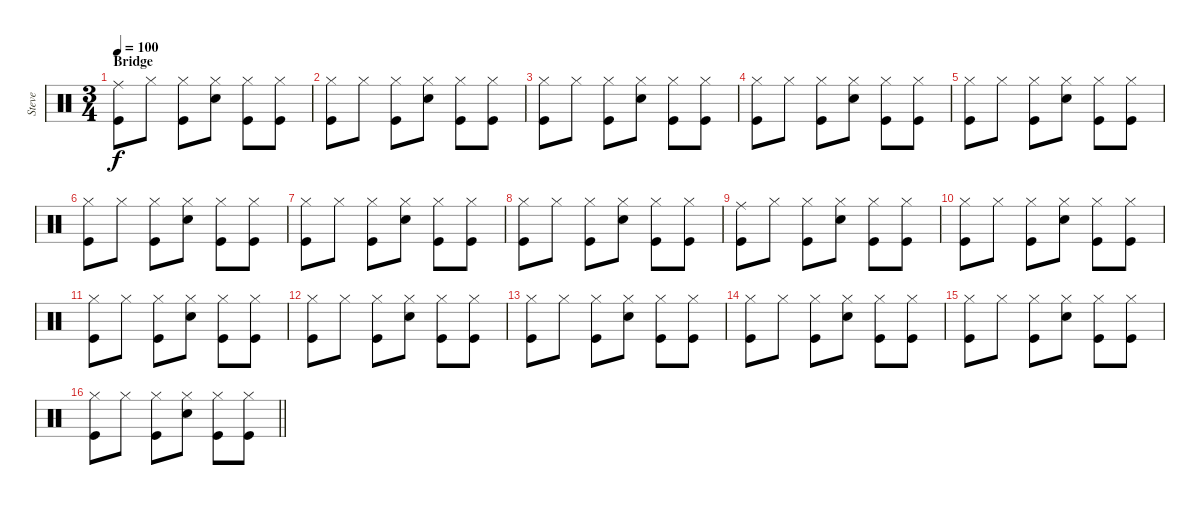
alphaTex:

\track ("Steve" "Steve") {instrument percussion}
\staff {score}
\articulation defaults
\ts (3 4)
\section ("" "Bridge")
\tempo 100
\clef neutral
\ks c
("Kick (hit)" "Ride (middle)").8{dy f} "Hi-Hat (closed)".8 ("Kick (hit)" "Hi-Hat (closed)").8 ("Snare (hit) 2" "Hi-Hat (closed)").8 ("Kick (hit)" "Hi-Hat (closed)").8 ("Kick (hit)" "Hi-Hat (closed)").8 |
("Kick (hit)" "Hi-Hat (closed)").8 "Hi-Hat (closed)".8 ("Kick (hit)" "Hi-Hat (closed)").8 ("Snare (hit) 2" "Hi-Hat (closed)").8 ("Kick (hit)" "Hi-Hat (closed)").8 ("Kick (hit)" "Hi-Hat (closed)").8 |
("Kick (hit)" "Hi-Hat (closed)").8 "Hi-Hat (closed)".8 ("Kick (hit)" "Hi-Hat (closed)").8 ("Snare (hit) 2" "Hi-Hat (closed)").8 ("Kick (hit)" "Hi-Hat (closed)").8 ("Kick (hit)" "Hi-Hat (closed)").8 |
("Kick (hit)" "Hi-Hat (closed)").8 "Hi-Hat (closed)".8 ("Kick (hit)" "Hi-Hat (closed)").8 ("Snare (hit) 2" "Hi-Hat (closed)").8 ("Kick (hit)" "Hi-Hat (closed)").8 ("Kick (hit)" "Hi-Hat (closed)").8 |
("Kick (hit)" "Hi-Hat (closed)").8 "Hi-Hat (closed)".8 ("Kick (hit)" "Hi-Hat (closed)").8 ("Snare (hit) 2" "Hi-Hat (closed)").8 ("Kick (hit)" "Hi-Hat (closed)").8 ("Kick (hit)" "Hi-Hat (closed)").8 |
("Kick (hit)" "Hi-Hat (closed)").8 "Hi-Hat (closed)".8 ("Kick (hit)" "Hi-Hat (closed)").8 ("Snare (hit) 2" "Hi-Hat (closed)").8 ("Kick (hit)" "Hi-Hat (closed)").8 ("Kick (hit)" "Hi-Hat (closed)").8 |
("Kick (hit)" "Hi-Hat (closed)").8 "Hi-Hat (closed)".8 ("Kick (hit)" "Hi-Hat (closed)").8 ("Snare (hit) 2" "Hi-Hat (closed)").8 ("Kick (hit)" "Hi-Hat (closed)").8 ("Kick (hit)" "Hi-Hat (closed)").8 |
("Kick (hit)" "Hi-Hat (closed)").8 "Hi-Hat (closed)".8 ("Kick (hit)" "Hi-Hat (closed)").8 ("Snare (hit) 2" "Hi-Hat (closed)").8 ("Kick (hit)" "Hi-Hat (closed)").8 ("Kick (hit)" "Hi-Hat (closed)").8 |
("Kick (hit)" "Ride (middle)").8 "Hi-Hat (closed)".8 ("Kick (hit)" "Hi-Hat (closed)").8 ("Snare (hit) 2" "Hi-Hat (closed)").8 ("Kick (hit)" "Hi-Hat (closed)").8 ("Kick (hit)" "Hi-Hat (closed)").8 |
("Kick (hit)" "Hi-Hat (closed)").8 "Hi-Hat (closed)".8 ("Kick (hit)" "Hi-Hat (closed)").8 ("Snare (hit) 2" "Hi-Hat (closed)").8 ("Kick (hit)" "Hi-Hat (closed)").8 ("Kick (hit)" "Hi-Hat (closed)").8 |
("Kick (hit)" "Hi-Hat (closed)").8 "Hi-Hat (closed)".8 ("Kick (hit)" "Hi-Hat (closed)").8 ("Snare (hit) 2" "Hi-Hat (closed)").8 ("Kick (hit)" "Hi-Hat (closed)").8 ("Kick (hit)" "Hi-Hat (closed)").8 |
("Kick (hit)" "Hi-Hat (closed)").8 "Hi-Hat (closed)".8 ("Kick (hit)" "Hi-Hat (closed)").8 ("Snare (hit) 2" "Hi-Hat (closed)").8 ("Kick (hit)" "Hi-Hat (closed)").8 ("Kick (hit)" "Hi-Hat (closed)").8 |
("Kick (hit)" "Hi-Hat (closed)").8 "Hi-Hat (closed)".8 ("Kick (hit)" "Hi-Hat (closed)").8 ("Snare (hit) 2" "Hi-Hat (closed)").8 ("Kick (hit)" "Hi-Hat (closed)").8 ("Kick (hit)" "Hi-Hat (closed)").8 |
("Kick (hit)" "Hi-Hat (closed)").8 "Hi-Hat (closed)".8 ("Kick (hit)" "Hi-Hat (closed)").8 ("Snare (hit) 2" "Hi-Hat (closed)").8 ("Kick (hit)" "Hi-Hat (closed)").8 ("Kick (hit)" "Hi-Hat (closed)").8 |
("Kick (hit)" "Hi-Hat (closed)").8 "Hi-Hat (closed)".8 ("Kick (hit)" "Hi-Hat (closed)").8 ("Snare (hit) 2" "Hi-Hat (closed)").8 ("Kick (hit)" "Hi-Hat (closed)").8 ("Kick (hit)" "Hi-Hat (closed)").8 |
\barLineRight lightlight
("Kick (hit)" "Hi-Hat (closed)").8 "Hi-Hat (closed)".8 ("Kick (hit)" "Hi-Hat (closed)").8 ("Snare (hit) 2" "Hi-Hat (closed)").8 ("Kick (hit)" "Hi-Hat (closed)").8 ("Kick (hit)" "Hi-Hat (closed)").8
